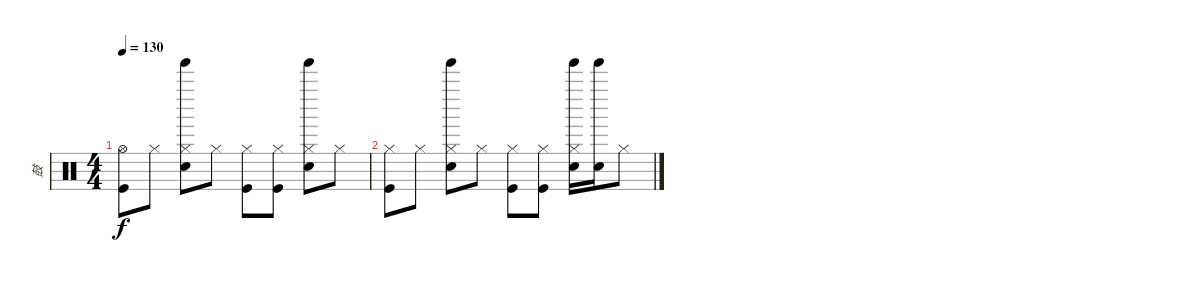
\track ("鼓" "鼓") {instrument percussion}
\staff {score}
\articulation defaults
\ts (4 4)
\tempo 130
\clef neutral
\ks c
("Hi-Hat (open)" "Kick (hit)").8{dy f} "Hi-Hat (closed)".8 ("Hi-Hat (closed)" "Tinkle Bell (hit)" "Snare (hit) 2").8 "Hi-Hat (closed)".8 ("Hi-Hat (closed)" "Kick (hit)").8 ("Hi-Hat (closed)" "Kick (hit)").8 ("Hi-Hat (closed)" "Tinkle Bell (hit)" "Snare (hit) 2").8 "Hi-Hat (closed)".8 |
("Hi-Hat (closed)" "Kick (hit)").8 "Hi-Hat (closed)".8 ("Hi-Hat (closed)" "Tinkle Bell (hit)" "Snare (hit) 2").8 "Hi-Hat (closed)".8 ("Hi-Hat (closed)" "Kick (hit)").8 ("Hi-Hat (closed)" "Kick (hit)").8 ("Hi-Hat (closed)" "Tinkle Bell (hit)" "Snare (hit) 2").16 ("Tinkle Bell (hit)" "Snare (hit) 2").16 "Hi-Hat (closed)".8
